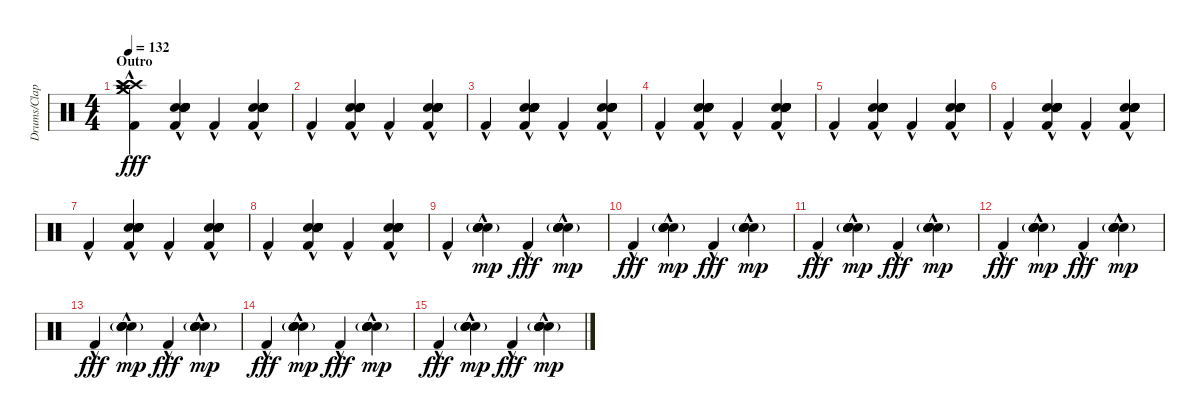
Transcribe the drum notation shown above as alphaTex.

\track ("Drums/Claps" "Drums/Clap") {instrument percussion}
\staff {score}
\articulation defaults
\ts (4 4)
\section ("" "Outro")
\tempo 132
\clef neutral
\ks c
("Crash high (hit)"{hac} "Crash high (hit)"{hac} "Crash high (hit)"{hac} "Crash medium (hit)"{hac} "Crash medium (hit)"{hac} "Kick (hit) 2"{hac}).4{dy fff} ("Hand Clap (hit)"{hac} "Hand Clap (hit)"{hac} "Hand Clap (hit)"{hac} "Snare (hit) 2"{hac} "Hand Clap (hit)"{hac} "Kick (hit) 2"{hac}).4 "Kick (hit) 2"{hac}.4 ("Hand Clap (hit)"{hac} "Hand Clap (hit)"{hac} "Hand Clap (hit)"{hac} "Snare (hit) 2"{hac} "Hand Clap (hit)"{hac} "Kick (hit) 2"{hac}).4 |
"Kick (hit) 2"{hac}.4 ("Hand Clap (hit)"{hac} "Hand Clap (hit)"{hac} "Hand Clap (hit)"{hac} "Snare (hit) 2"{hac} "Hand Clap (hit)"{hac} "Kick (hit) 2"{hac}).4 "Kick (hit) 2"{hac}.4 ("Hand Clap (hit)"{hac} "Hand Clap (hit)"{hac} "Hand Clap (hit)"{hac} "Snare (hit) 2"{hac} "Hand Clap (hit)"{hac} "Kick (hit) 2"{hac}).4 |
"Kick (hit) 2"{hac}.4 ("Hand Clap (hit)"{hac} "Hand Clap (hit)"{hac} "Hand Clap (hit)"{hac} "Snare (hit) 2"{hac} "Hand Clap (hit)"{hac} "Kick (hit) 2"{hac}).4 "Kick (hit) 2"{hac}.4 ("Hand Clap (hit)"{hac} "Hand Clap (hit)"{hac} "Hand Clap (hit)"{hac} "Snare (hit) 2"{hac} "Hand Clap (hit)"{hac} "Kick (hit) 2"{hac}).4 |
"Kick (hit) 2"{hac}.4 ("Hand Clap (hit)"{hac} "Hand Clap (hit)"{hac} "Hand Clap (hit)"{hac} "Snare (hit) 2"{hac} "Hand Clap (hit)"{hac} "Kick (hit) 2"{hac}).4 "Kick (hit) 2"{hac}.4 ("Hand Clap (hit)"{hac} "Hand Clap (hit)"{hac} "Hand Clap (hit)"{hac} "Snare (hit) 2"{hac} "Hand Clap (hit)"{hac} "Kick (hit) 2"{hac}).4 |
"Kick (hit) 2"{hac}.4 ("Hand Clap (hit)"{hac} "Hand Clap (hit)"{hac} "Hand Clap (hit)"{hac} "Snare (hit) 2"{hac} "Hand Clap (hit)"{hac} "Kick (hit) 2"{hac}).4 "Kick (hit) 2"{hac}.4 ("Hand Clap (hit)"{hac} "Hand Clap (hit)"{hac} "Hand Clap (hit)"{hac} "Snare (hit) 2"{hac} "Hand Clap (hit)"{hac} "Kick (hit) 2"{hac}).4 |
"Kick (hit) 2"{hac}.4 ("Hand Clap (hit)"{hac} "Hand Clap (hit)"{hac} "Hand Clap (hit)"{hac} "Snare (hit) 2"{hac} "Hand Clap (hit)"{hac} "Kick (hit) 2"{hac}).4 "Kick (hit) 2"{hac}.4 ("Hand Clap (hit)"{hac} "Hand Clap (hit)"{hac} "Hand Clap (hit)"{hac} "Snare (hit) 2"{hac} "Hand Clap (hit)"{hac} "Kick (hit) 2"{hac}).4 |
"Kick (hit) 2"{hac}.4 ("Hand Clap (hit)"{hac} "Hand Clap (hit)"{hac} "Hand Clap (hit)"{hac} "Snare (hit) 2"{hac} "Hand Clap (hit)"{hac} "Kick (hit) 2"{hac}).4 "Kick (hit) 2"{hac}.4 ("Hand Clap (hit)"{hac} "Hand Clap (hit)"{hac} "Hand Clap (hit)"{hac} "Snare (hit) 2"{hac} "Hand Clap (hit)"{hac} "Kick (hit) 2"{hac}).4 |
"Kick (hit) 2"{hac}.4 ("Hand Clap (hit)"{hac} "Hand Clap (hit)"{hac} "Hand Clap (hit)"{hac} "Snare (hit) 2"{hac} "Hand Clap (hit)"{hac} "Kick (hit) 2"{hac}).4 "Kick (hit) 2"{hac}.4 ("Hand Clap (hit)"{hac} "Hand Clap (hit)"{hac} "Hand Clap (hit)"{hac} "Snare (hit) 2"{hac} "Hand Clap (hit)"{hac} "Kick (hit) 2"{hac}).4 |
"Kick (hit) 2"{hac}.4 ("Hand Clap (hit)"{hac} "Hand Clap (hit)"{hac} "Hand Clap (hit)"{hac} "Snare (hit) 2"{g}).4{dy mp} "Kick (hit) 2"{hac}.4{dy fff} ("Hand Clap (hit)"{hac} "Hand Clap (hit)"{hac} "Hand Clap (hit)"{hac} "Snare (hit) 2"{g}).4{dy mp} |
"Kick (hit) 2"{hac}.4{dy fff} ("Hand Clap (hit)"{hac} "Hand Clap (hit)"{hac} "Hand Clap (hit)"{hac} "Snare (hit) 2"{g}).4{dy mp} "Kick (hit) 2"{hac}.4{dy fff} ("Hand Clap (hit)"{hac} "Hand Clap (hit)"{hac} "Hand Clap (hit)"{hac} "Snare (hit) 2"{g}).4{dy mp} |
"Kick (hit) 2"{hac}.4{dy fff} ("Hand Clap (hit)"{hac} "Hand Clap (hit)"{hac} "Hand Clap (hit)"{hac} "Snare (hit) 2"{g}).4{dy mp} "Kick (hit) 2"{hac}.4{dy fff} ("Hand Clap (hit)"{hac} "Hand Clap (hit)"{hac} "Hand Clap (hit)"{hac} "Snare (hit) 2"{g}).4{dy mp} |
"Kick (hit) 2"{hac}.4{dy fff} ("Hand Clap (hit)"{hac} "Hand Clap (hit)"{hac} "Hand Clap (hit)"{hac} "Snare (hit) 2"{g}).4{dy mp} "Kick (hit) 2"{hac}.4{dy fff} ("Hand Clap (hit)"{hac} "Hand Clap (hit)"{hac} "Hand Clap (hit)"{hac} "Snare (hit) 2"{g}).4{dy mp} |
"Kick (hit) 2"{hac}.4{dy fff} ("Hand Clap (hit)"{hac} "Hand Clap (hit)"{hac} "Hand Clap (hit)"{hac} "Snare (hit) 2"{g}).4{dy mp} "Kick (hit) 2"{hac}.4{dy fff} ("Hand Clap (hit)"{hac} "Hand Clap (hit)"{hac} "Hand Clap (hit)"{hac} "Snare (hit) 2"{g}).4{dy mp} |
"Kick (hit) 2"{hac}.4{dy fff} ("Hand Clap (hit)"{hac} "Hand Clap (hit)"{hac} "Hand Clap (hit)"{hac} "Snare (hit) 2"{g}).4{dy mp} "Kick (hit) 2"{hac}.4{dy fff} ("Hand Clap (hit)"{hac} "Hand Clap (hit)"{hac} "Hand Clap (hit)"{hac} "Snare (hit) 2"{g}).4{dy mp} |
"Kick (hit) 2"{hac}.4{dy fff} ("Hand Clap (hit)"{hac} "Hand Clap (hit)"{hac} "Hand Clap (hit)"{hac} "Snare (hit) 2"{g}).4{dy mp} "Kick (hit) 2"{hac}.4{dy fff} ("Hand Clap (hit)"{hac} "Hand Clap (hit)"{hac} "Hand Clap (hit)"{hac} "Snare (hit) 2"{g}).4{dy mp}
